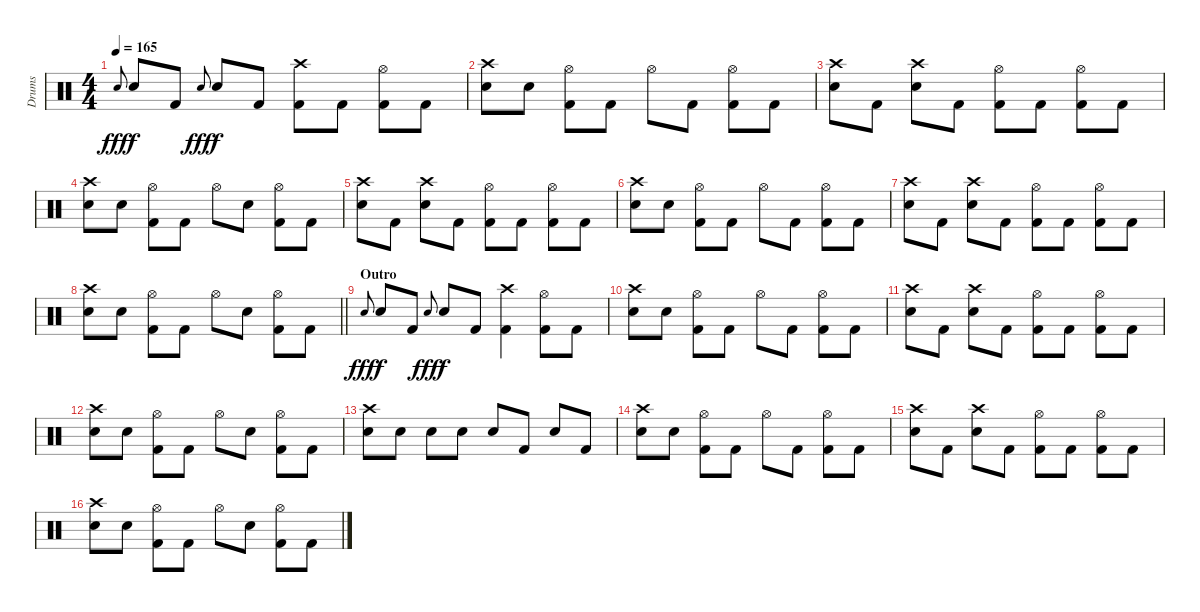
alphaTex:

\track ("Drums" "Drums") {instrument percussion}
\staff {score}
\articulation defaults
\ts (4 4)
\tempo 165
\clef neutral
\ks c "Electric Snare (hit)".8{gr onbeat dy fff} "Electric Snare (hit)".8{dy f} "Kick (hit) 2".8 "Electric Snare (hit)".8{gr onbeat dy fff} "Electric Snare (hit)".8{dy f} "Kick (hit) 2".8
("Crash high (hit)" "Kick (hit) 2").8 "Kick (hit) 2".8 ("Hi-Hat (open)" "Kick (hit) 2").8 "Kick (hit) 2".8 |
("Crash high (hit)" "Electric Snare (hit)").8 "Electric Snare (hit)".8 ("Hi-Hat (open)" "Kick (hit) 2").8 "Kick (hit) 2".8 "Hi-Hat (open)".8 "Kick (hit) 2".8 ("Hi-Hat (open)" "Kick (hit) 2").8 "Kick (hit) 2".8 |
("Crash high (hit)" "Electric Snare (hit)").8 "Kick (hit) 2".8 ("Crash high (hit)" "Electric Snare (hit)").8 "Kick (hit) 2".8 ("Hi-Hat (open)" "Kick (hit) 2").8 "Kick (hit) 2".8 ("Hi-Hat (open)" "Kick (hit) 2").8 "Kick (hit) 2".8 |
("Crash high (hit)" "Electric Snare (hit)").8 "Electric Snare (hit)".8 ("Hi-Hat (open)" "Kick (hit) 2").8 "Kick (hit) 2".8 "Hi-Hat (open)".8 "Electric Snare (hit)".8 ("Hi-Hat (open)" "Kick (hit) 2").8 "Kick (hit) 2".8 |
("Crash high (hit)" "Electric Snare (hit)").8 "Kick (hit) 2".8 ("Crash high (hit)" "Electric Snare (hit)").8 "Kick (hit) 2".8 ("Hi-Hat (open)" "Kick (hit) 2").8 "Kick (hit) 2".8 ("Hi-Hat (open)" "Kick (hit) 2").8 "Kick (hit) 2".8 |
("Crash high (hit)" "Electric Snare (hit)").8 "Electric Snare (hit)".8 ("Hi-Hat (open)" "Kick (hit) 2").8 "Kick (hit) 2".8 "Hi-Hat (open)".8 "Kick (hit) 2".8 ("Hi-Hat (open)" "Kick (hit) 2").8 "Kick (hit) 2".8 |
("Crash high (hit)" "Electric Snare (hit)").8 "Kick (hit) 2".8 ("Crash high (hit)" "Electric Snare (hit)").8 "Kick (hit) 2".8 ("Hi-Hat (open)" "Kick (hit) 2").8 "Kick (hit) 2".8 ("Hi-Hat (open)" "Kick (hit) 2").8 "Kick (hit) 2".8 |
\barLineRight lightlight
("Crash high (hit)" "Electric Snare (hit)").8 "Electric Snare (hit)".8 ("Hi-Hat (open)" "Kick (hit) 2").8 "Kick (hit) 2".8 "Hi-Hat (open)".8 "Electric Snare (hit)".8 ("Hi-Hat (open)" "Kick (hit) 2").8 "Kick (hit) 2".8 |
\section ("" "Outro")
"Electric Snare (hit)".8{gr onbeat dy fff} "Electric Snare (hit)".8{dy f} "Kick (hit) 2".8 "Electric Snare (hit)".8{gr onbeat dy fff} "Electric Snare (hit)".8{dy f} "Kick (hit) 2".8 ("Crash high (hit)" "Kick (hit) 2").4 ("Hi-Hat (open)" "Kick (hit) 2").8 "Kick (hit) 2".8 |
("Crash high (hit)" "Electric Snare (hit)").8 "Electric Snare (hit)".8 ("Hi-Hat (open)" "Kick (hit) 2").8 "Kick (hit) 2".8 "Hi-Hat (open)".8 "Kick (hit) 2".8 ("Hi-Hat (open)" "Kick (hit) 2").8 "Kick (hit) 2".8 |
("Crash high (hit)" "Electric Snare (hit)").8 "Kick (hit) 2".8 ("Crash high (hit)" "Electric Snare (hit)").8 "Kick (hit) 2".8 ("Hi-Hat (open)" "Kick (hit) 2").8 "Kick (hit) 2".8 ("Hi-Hat (open)" "Kick (hit) 2").8 "Kick (hit) 2".8 |
("Crash high (hit)" "Electric Snare (hit)").8 "Electric Snare (hit)".8 ("Hi-Hat (open)" "Kick (hit) 2").8 "Kick (hit) 2".8 "Hi-Hat (open)".8 "Electric Snare (hit)".8 ("Hi-Hat (open)" "Kick (hit) 2").8 "Kick (hit) 2".8 |
("Crash high (hit)" "Electric Snare (hit)").8 "Electric Snare (hit)".8 "Electric Snare (hit)".8 "Electric Snare (hit)".8 "Electric Snare (hit)".8 "Kick (hit) 2".8 "Electric Snare (hit)".8 "Kick (hit) 2".8 |
("Crash high (hit)" "Electric Snare (hit)").8 "Electric Snare (hit)".8 ("Hi-Hat (open)" "Kick (hit) 2").8 "Kick (hit) 2".8 "Hi-Hat (open)".8 "Kick (hit) 2".8 ("Hi-Hat (open)" "Kick (hit) 2").8 "Kick (hit) 2".8 |
("Crash high (hit)" "Electric Snare (hit)").8 "Kick (hit) 2".8 ("Crash high (hit)" "Electric Snare (hit)").8 "Kick (hit) 2".8 ("Hi-Hat (open)" "Kick (hit) 2").8 "Kick (hit) 2".8 ("Hi-Hat (open)" "Kick (hit) 2").8 "Kick (hit) 2".8 |
("Crash high (hit)" "Electric Snare (hit)").8 "Electric Snare (hit)".8 ("Hi-Hat (open)" "Kick (hit) 2").8 "Kick (hit) 2".8 "Hi-Hat (open)".8 "Electric Snare (hit)".8 ("Hi-Hat (open)" "Kick (hit) 2").8 "Kick (hit) 2".8
